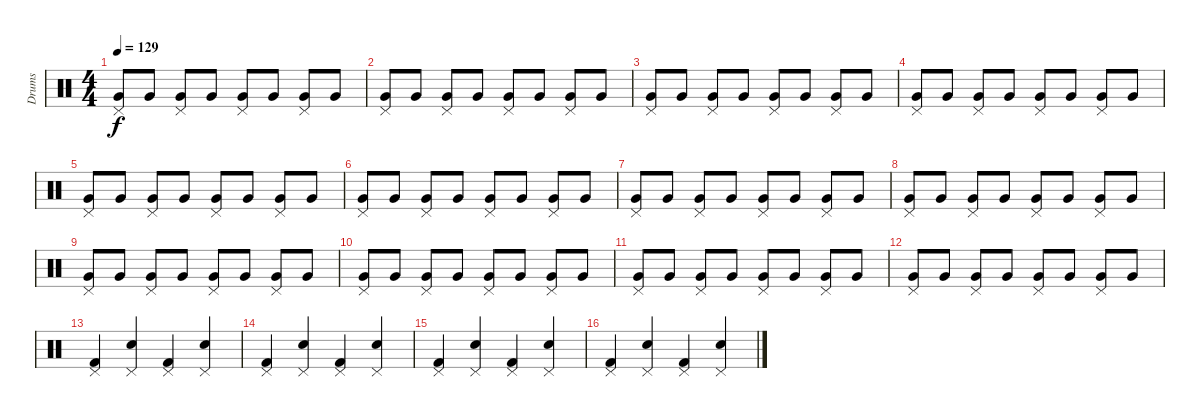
\track ("Drums" "Drums") {instrument percussion}
\staff {score}
\articulation defaults
\ts (4 4)
\tempo 129
\clef neutral
\ks c
("Pedal Hi-Hat (hit)" "Very Low Tom (hit)").8{dy f} "Very Low Tom (hit)".8 ("Pedal Hi-Hat (hit)" "Very Low Tom (hit)").8 "Very Low Tom (hit)".8 ("Pedal Hi-Hat (hit)" "Very Low Tom (hit)").8 "Very Low Tom (hit)".8 ("Pedal Hi-Hat (hit)" "Very Low Tom (hit)").8 "Very Low Tom (hit)".8 |
("Pedal Hi-Hat (hit)" "Very Low Tom (hit)").8 "Very Low Tom (hit)".8 ("Pedal Hi-Hat (hit)" "Very Low Tom (hit)").8 "Very Low Tom (hit)".8 ("Pedal Hi-Hat (hit)" "Very Low Tom (hit)").8 "Very Low Tom (hit)".8 ("Pedal Hi-Hat (hit)" "Very Low Tom (hit)").8 "Very Low Tom (hit)".8 |
("Pedal Hi-Hat (hit)" "Very Low Tom (hit)").8 "Very Low Tom (hit)".8 ("Pedal Hi-Hat (hit)" "Very Low Tom (hit)").8 "Very Low Tom (hit)".8 ("Pedal Hi-Hat (hit)" "Very Low Tom (hit)").8 "Very Low Tom (hit)".8 ("Pedal Hi-Hat (hit)" "Very Low Tom (hit)").8 "Very Low Tom (hit)".8 |
("Pedal Hi-Hat (hit)" "Very Low Tom (hit)").8 "Very Low Tom (hit)".8 ("Pedal Hi-Hat (hit)" "Very Low Tom (hit)").8 "Very Low Tom (hit)".8 ("Pedal Hi-Hat (hit)" "Very Low Tom (hit)").8 "Very Low Tom (hit)".8 ("Pedal Hi-Hat (hit)" "Very Low Tom (hit)").8 "Very Low Tom (hit)".8 |
("Pedal Hi-Hat (hit)" "Very Low Tom (hit)").8 "Very Low Tom (hit)".8 ("Pedal Hi-Hat (hit)" "Very Low Tom (hit)").8 "Very Low Tom (hit)".8 ("Pedal Hi-Hat (hit)" "Very Low Tom (hit)").8 "Very Low Tom (hit)".8 ("Pedal Hi-Hat (hit)" "Very Low Tom (hit)").8 "Very Low Tom (hit)".8 |
("Pedal Hi-Hat (hit)" "Very Low Tom (hit)").8 "Very Low Tom (hit)".8 ("Pedal Hi-Hat (hit)" "Very Low Tom (hit)").8 "Very Low Tom (hit)".8 ("Pedal Hi-Hat (hit)" "Very Low Tom (hit)").8 "Very Low Tom (hit)".8 ("Pedal Hi-Hat (hit)" "Very Low Tom (hit)").8 "Very Low Tom (hit)".8 |
("Pedal Hi-Hat (hit)" "Very Low Tom (hit)").8 "Very Low Tom (hit)".8 ("Pedal Hi-Hat (hit)" "Very Low Tom (hit)").8 "Very Low Tom (hit)".8 ("Pedal Hi-Hat (hit)" "Very Low Tom (hit)").8 "Very Low Tom (hit)".8 ("Pedal Hi-Hat (hit)" "Very Low Tom (hit)").8 "Very Low Tom (hit)".8 |
("Pedal Hi-Hat (hit)" "Very Low Tom (hit)").8 "Very Low Tom (hit)".8 ("Pedal Hi-Hat (hit)" "Very Low Tom (hit)").8 "Very Low Tom (hit)".8 ("Pedal Hi-Hat (hit)" "Very Low Tom (hit)").8 "Very Low Tom (hit)".8 ("Pedal Hi-Hat (hit)" "Very Low Tom (hit)").8 "Very Low Tom (hit)".8 |
("Pedal Hi-Hat (hit)" "Very Low Tom (hit)").8 "Very Low Tom (hit)".8 ("Pedal Hi-Hat (hit)" "Very Low Tom (hit)").8 "Very Low Tom (hit)".8 ("Pedal Hi-Hat (hit)" "Very Low Tom (hit)").8 "Very Low Tom (hit)".8 ("Pedal Hi-Hat (hit)" "Very Low Tom (hit)").8 "Very Low Tom (hit)".8 |
("Pedal Hi-Hat (hit)" "Very Low Tom (hit)").8 "Very Low Tom (hit)".8 ("Pedal Hi-Hat (hit)" "Very Low Tom (hit)").8 "Very Low Tom (hit)".8 ("Pedal Hi-Hat (hit)" "Very Low Tom (hit)").8 "Very Low Tom (hit)".8 ("Pedal Hi-Hat (hit)" "Very Low Tom (hit)").8 "Very Low Tom (hit)".8 |
("Pedal Hi-Hat (hit)" "Very Low Tom (hit)").8 "Very Low Tom (hit)".8 ("Pedal Hi-Hat (hit)" "Very Low Tom (hit)").8 "Very Low Tom (hit)".8 ("Pedal Hi-Hat (hit)" "Very Low Tom (hit)").8 "Very Low Tom (hit)".8 ("Pedal Hi-Hat (hit)" "Very Low Tom (hit)").8 "Very Low Tom (hit)".8 |
("Pedal Hi-Hat (hit)" "Very Low Tom (hit)").8 "Very Low Tom (hit)".8 ("Pedal Hi-Hat (hit)" "Very Low Tom (hit)").8 "Very Low Tom (hit)".8 ("Pedal Hi-Hat (hit)" "Very Low Tom (hit)").8 "Very Low Tom (hit)".8 ("Pedal Hi-Hat (hit)" "Very Low Tom (hit)").8 "Very Low Tom (hit)".8 |
("Pedal Hi-Hat (hit)" "Kick (hit) 2").4 ("Pedal Hi-Hat (hit)" "Snare (hit) 2").4 ("Pedal Hi-Hat (hit)" "Kick (hit) 2").4 ("Pedal Hi-Hat (hit)" "Snare (hit) 2").4 |
("Pedal Hi-Hat (hit)" "Kick (hit) 2").4 ("Pedal Hi-Hat (hit)" "Snare (hit) 2").4 ("Pedal Hi-Hat (hit)" "Kick (hit) 2").4 ("Pedal Hi-Hat (hit)" "Snare (hit) 2").4 |
("Pedal Hi-Hat (hit)" "Kick (hit) 2").4 ("Pedal Hi-Hat (hit)" "Snare (hit) 2").4 ("Pedal Hi-Hat (hit)" "Kick (hit) 2").4 ("Pedal Hi-Hat (hit)" "Snare (hit) 2").4 |
("Pedal Hi-Hat (hit)" "Kick (hit) 2").4 ("Pedal Hi-Hat (hit)" "Snare (hit) 2").4 ("Pedal Hi-Hat (hit)" "Kick (hit) 2").4 ("Pedal Hi-Hat (hit)" "Snare (hit) 2").4
